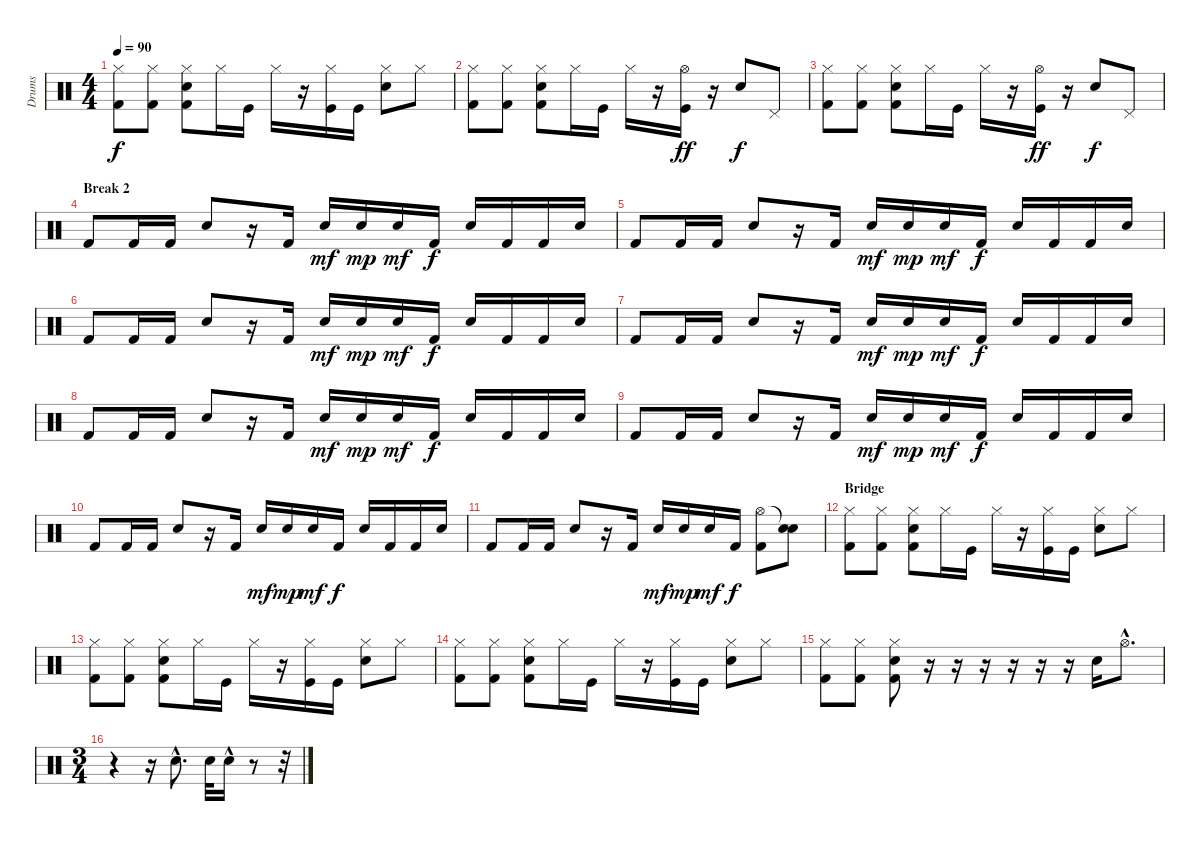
\track ("Drums" "Drums") {instrument percussion}
\staff {score}
\articulation defaults
\ts (4 4)
\tempo 90
\clef neutral
\ks c
("Hi-Hat (closed)" "Kick (hit) 2").8{dy f} ("Hi-Hat (closed)" "Kick (hit) 2").8 ("Hi-Hat (closed)" "Electric Snare (hit)" "Kick (hit) 2").8 "Hi-Hat (closed)".16 "Kick (hit)".16 "Hi-Hat (closed)".16 r.16 ("Hi-Hat (closed)" "Kick (hit)").16 "Kick (hit)".16 ("Hi-Hat (closed)" "Electric Snare (hit)").8 "Hi-Hat (closed)".8 |
("Hi-Hat (closed)" "Kick (hit) 2").8 ("Hi-Hat (closed)" "Kick (hit) 2").8 ("Hi-Hat (closed)" "Electric Snare (hit)" "Kick (hit) 2").8 "Hi-Hat (closed)".16 "Kick (hit)".16 "Hi-Hat (closed)".16 r.16 ("Hi-Hat (open)" "Kick (hit)").16{dy ff} r.16 "Electric Snare (hit)".8{dy f} "Pedal Hi-Hat (hit)".8 |
("Hi-Hat (closed)" "Kick (hit) 2").8 ("Hi-Hat (closed)" "Kick (hit) 2").8 ("Hi-Hat (closed)" "Electric Snare (hit)" "Kick (hit) 2").8 "Hi-Hat (closed)".16 "Kick (hit)".16 "Hi-Hat (closed)".16 r.16 ("Hi-Hat (open)" "Kick (hit)").16{dy ff} r.16 "Electric Snare (hit)".8{dy f} "Pedal Hi-Hat (hit)".8 |
\section ("" "Break 2")
"Kick (hit) 2".8 "Kick (hit) 2".16 "Kick (hit) 2".16 "Electric Snare (hit)".8 r.16 "Kick (hit) 2".16 "Electric Snare (hit)".16{dy mf} "Electric Snare (hit)".16{dy mp} "Electric Snare (hit)".16{dy mf} "Kick (hit) 2".16{dy f} "Electric Snare (hit)".16 "Kick (hit) 2".16 "Kick (hit) 2".16 "Electric Snare (hit)".16 |
"Kick (hit) 2".8 "Kick (hit) 2".16 "Kick (hit) 2".16 "Electric Snare (hit)".8 r.16 "Kick (hit) 2".16 "Electric Snare (hit)".16{dy mf} "Electric Snare (hit)".16{dy mp} "Electric Snare (hit)".16{dy mf} "Kick (hit) 2".16{dy f} "Electric Snare (hit)".16 "Kick (hit) 2".16 "Kick (hit) 2".16 "Electric Snare (hit)".16 |
"Kick (hit) 2".8 "Kick (hit) 2".16 "Kick (hit) 2".16 "Electric Snare (hit)".8 r.16 "Kick (hit) 2".16 "Electric Snare (hit)".16{dy mf} "Electric Snare (hit)".16{dy mp} "Electric Snare (hit)".16{dy mf} "Kick (hit) 2".16{dy f} "Electric Snare (hit)".16 "Kick (hit) 2".16 "Kick (hit) 2".16 "Electric Snare (hit)".16 |
"Kick (hit) 2".8 "Kick (hit) 2".16 "Kick (hit) 2".16 "Electric Snare (hit)".8 r.16 "Kick (hit) 2".16 "Electric Snare (hit)".16{dy mf} "Electric Snare (hit)".16{dy mp} "Electric Snare (hit)".16{dy mf} "Kick (hit) 2".16{dy f} "Electric Snare (hit)".16 "Kick (hit) 2".16 "Kick (hit) 2".16 "Electric Snare (hit)".16 |
"Kick (hit) 2".8 "Kick (hit) 2".16 "Kick (hit) 2".16 "Electric Snare (hit)".8 r.16 "Kick (hit) 2".16 "Electric Snare (hit)".16{dy mf} "Electric Snare (hit)".16{dy mp} "Electric Snare (hit)".16{dy mf} "Kick (hit) 2".16{dy f} "Electric Snare (hit)".16 "Kick (hit) 2".16 "Kick (hit) 2".16 "Electric Snare (hit)".16 |
"Kick (hit) 2".8 "Kick (hit) 2".16 "Kick (hit) 2".16 "Electric Snare (hit)".8 r.16 "Kick (hit) 2".16 "Electric Snare (hit)".16{dy mf} "Electric Snare (hit)".16{dy mp} "Electric Snare (hit)".16{dy mf} "Kick (hit) 2".16{dy f} "Electric Snare (hit)".16 "Kick (hit) 2".16 "Kick (hit) 2".16 "Electric Snare (hit)".16 |
"Kick (hit) 2".8 "Kick (hit) 2".16 "Kick (hit) 2".16 "Electric Snare (hit)".8 r.16 "Kick (hit) 2".16 "Electric Snare (hit)".16{dy mf} "Electric Snare (hit)".16{dy mp} "Electric Snare (hit)".16{dy mf} "Kick (hit) 2".16{dy f} "Electric Snare (hit)".16 "Kick (hit) 2".16 "Kick (hit) 2".16 "Electric Snare (hit)".16 |
"Kick (hit) 2".8 "Kick (hit) 2".16 "Kick (hit) 2".16 "Electric Snare (hit)".8 r.16 "Kick (hit) 2".16 "Electric Snare (hit)".16{dy mf} "Electric Snare (hit)".16{dy mp} "Electric Snare (hit)".16{dy mf} "Kick (hit) 2".16{dy f} ("Hi-Hat (open)" "Kick (hit) 2").8 ("Snare (hit)"{t} "Electric Snare (hit)").8 |
\section ("" "Bridge")
("Hi-Hat (closed)" "Kick (hit) 2").8 ("Hi-Hat (closed)" "Kick (hit) 2").8 ("Hi-Hat (closed)" "Electric Snare (hit)" "Kick (hit) 2").8 "Hi-Hat (closed)".16 "Kick (hit)".16 "Hi-Hat (closed)".16 r.16 ("Hi-Hat (closed)" "Kick (hit)").16 "Kick (hit)".16 ("Hi-Hat (closed)" "Electric Snare (hit)").8 "Hi-Hat (closed)".8 |
("Hi-Hat (closed)" "Kick (hit) 2").8 ("Hi-Hat (closed)" "Kick (hit) 2").8 ("Hi-Hat (closed)" "Electric Snare (hit)" "Kick (hit) 2").8 "Hi-Hat (closed)".16 "Kick (hit)".16 "Hi-Hat (closed)".16 r.16 ("Hi-Hat (closed)" "Kick (hit)").16 "Kick (hit)".16 ("Hi-Hat (closed)" "Electric Snare (hit)").8 "Hi-Hat (closed)".8 |
("Hi-Hat (closed)" "Kick (hit) 2").8 ("Hi-Hat (closed)" "Kick (hit) 2").8 ("Hi-Hat (closed)" "Electric Snare (hit)" "Kick (hit) 2").8 "Hi-Hat (closed)".16 "Kick (hit)".16 "Hi-Hat (closed)".16 r.16 ("Hi-Hat (closed)" "Kick (hit)").16 "Kick (hit)".16 ("Hi-Hat (closed)" "Electric Snare (hit)").8 "Hi-Hat (closed)".8 |
("Hi-Hat (closed)" "Kick (hit) 2").8 ("Hi-Hat (closed)" "Kick (hit) 2").8 ("Hi-Hat (closed)" "Electric Snare (hit)" "Kick (hit) 2").8 r.16 r.16 r.16 r.16 r.16 r.16 "Electric Snare (hit)".16 "Hi-Hat (open)"{hac}.8{d} |
\ts (3 4)
r.4 r.16 "Electric Snare (hit)"{hac}.8{d} "Electric Snare (hit)".32 "Electric Snare (hit)"{hac}.16 r.8 r.32
